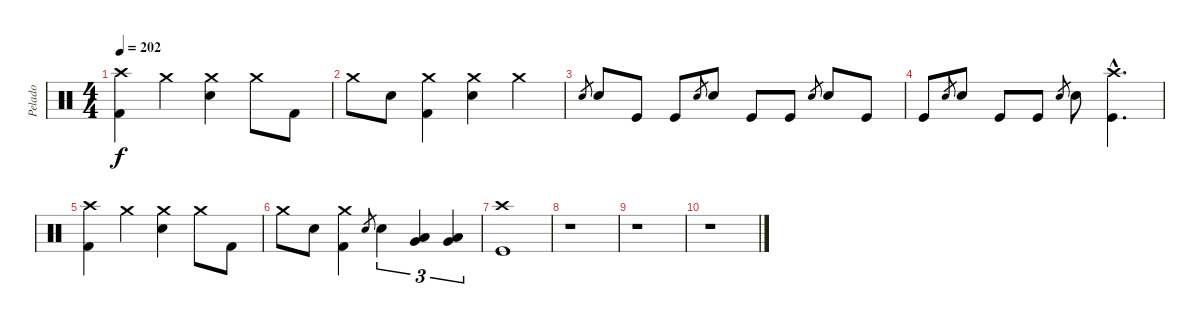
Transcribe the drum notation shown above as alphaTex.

\track ("Pelado" "Pelado") {instrument percussion}
\staff {score}
\articulation defaults
\ts (4 4)
\tempo 202
\clef neutral
\ks c
("Crash high (hit)" "Kick (hit) 2").4{dy f} "Crash medium (hit)".4 ("Crash medium (hit)" "Electric Snare (hit)").4 "Crash medium (hit)".8 "Kick (hit) 2".8 |
"Crash medium (hit)".8 "Electric Snare (hit)".8 ("Crash medium (hit)" "Kick (hit) 2").4 ("Crash medium (hit)" "Electric Snare (hit)").4 "Crash medium (hit)".4 |
"Electric Snare (hit)".8{gr} "Electric Snare (hit)".8 "Kick (hit)".8 "Kick (hit)".8 "Electric Snare (hit)".8{gr} "Electric Snare (hit)".8 "Kick (hit)".8 "Kick (hit)".8 "Electric Snare (hit)".8{gr} "Electric Snare (hit)".8 "Kick (hit)".8 |
"Kick (hit)".8 "Electric Snare (hit)".8{gr} "Electric Snare (hit)".8 "Kick (hit)".8 "Kick (hit)".8 "Electric Snare (hit)".8{gr} "Electric Snare (hit)".8 ("Crash high (hit)"{hac} "Kick (hit)"{hac}).4{d} |
("Crash high (hit)" "Kick (hit) 2").4 "Crash medium (hit)".4 ("Crash medium (hit)" "Electric Snare (hit)").4 "Crash medium (hit)".8 "Kick (hit) 2".8 |
"Crash medium (hit)".8 "Electric Snare (hit)".8 ("Crash medium (hit)" "Kick (hit) 2").4 "Electric Snare (hit)".8{gr} "Electric Snare (hit)".4{tu (3 2)} ("Low Tom (hit)" "Very Low Tom (hit)").4{tu (3 2)} ("Low Tom (hit)" "Very Low Tom (hit)").4{tu (3 2)} |
("Crash high (hit)" "Kick (hit)").1 |
r.1 |
r.1 |
r.1
